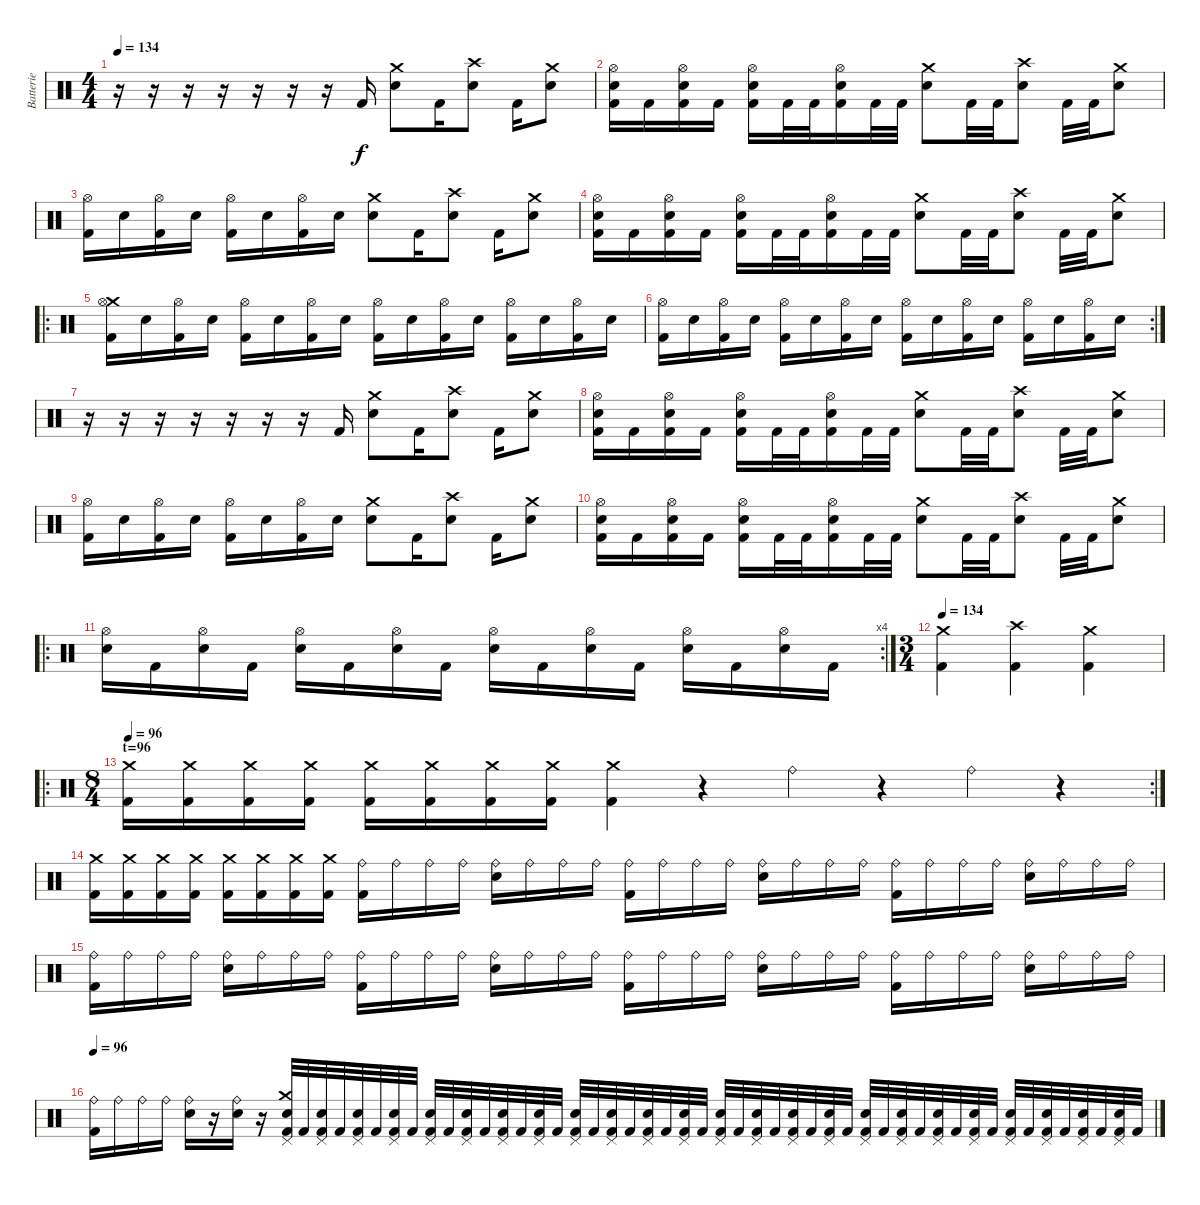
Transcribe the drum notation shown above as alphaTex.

\track ("Batterie" "Batterie") {instrument percussion}
\staff {score}
\articulation defaults
\ts (4 4)
\tempo 134
\clef neutral
\ks c
r.16{dy f} r.16 r.16 r.16 r.16 r.16 r.16 "Kick (hit) 2".16 ("Crash medium (hit)" "Electric Snare (hit)").8 "Kick (hit) 2".16 ("Crash high (hit)" "Electric Snare (hit)").8 "Kick (hit) 2".16 ("Crash medium (hit)" "Electric Snare (hit)").8 |
("Hi-Hat (open)" "Kick (hit) 2" "Electric Snare (hit)").16 "Kick (hit) 2".16 ("Hi-Hat (open)" "Kick (hit) 2" "Electric Snare (hit)").16 "Kick (hit) 2".16 ("Hi-Hat (open)" "Kick (hit) 2" "Electric Snare (hit)").16 "Kick (hit) 2".32 "Kick (hit) 2".32 ("Hi-Hat (open)" "Kick (hit) 2" "Electric Snare (hit)").16 "Kick (hit) 2".32 "Kick (hit) 2".32 ("Crash medium (hit)" "Electric Snare (hit)").8 "Kick (hit) 2".32 "Kick (hit) 2".32 ("Crash high (hit)" "Electric Snare (hit)").8 "Kick (hit) 2".32 "Kick (hit) 2".32 ("Crash medium (hit)" "Electric Snare (hit)").8 |
("Hi-Hat (open)" "Kick (hit) 2").16 "Electric Snare (hit)".16 ("Hi-Hat (open)" "Kick (hit) 2").16 "Electric Snare (hit)".16 ("Hi-Hat (open)" "Kick (hit) 2").16 "Electric Snare (hit)".16 ("Hi-Hat (open)" "Kick (hit) 2").16 "Electric Snare (hit)".16 ("Crash medium (hit)" "Electric Snare (hit)").8 "Kick (hit) 2".16 ("Crash high (hit)" "Electric Snare (hit)").8 "Kick (hit) 2".16 ("Crash medium (hit)" "Electric Snare (hit)").8 |
("Hi-Hat (open)" "Kick (hit) 2" "Electric Snare (hit)").16 "Kick (hit) 2".16 ("Hi-Hat (open)" "Kick (hit) 2" "Electric Snare (hit)").16 "Kick (hit) 2".16 ("Hi-Hat (open)" "Kick (hit) 2" "Electric Snare (hit)").16 "Kick (hit) 2".32 "Kick (hit) 2".32 ("Hi-Hat (open)" "Kick (hit) 2" "Electric Snare (hit)").16 "Kick (hit) 2".32 "Kick (hit) 2".32 ("Crash medium (hit)" "Electric Snare (hit)").8 "Kick (hit) 2".32 "Kick (hit) 2".32 ("Crash high (hit)" "Electric Snare (hit)").8 "Kick (hit) 2".32 "Kick (hit) 2".32 ("Crash medium (hit)" "Electric Snare (hit)").8 |
\ro
("Crash medium (hit)" "Hi-Hat (open)" "Kick (hit) 2").16 "Electric Snare (hit)".16 ("Hi-Hat (open)" "Kick (hit) 2").16 "Electric Snare (hit)".16 ("Hi-Hat (open)" "Kick (hit) 2").16 "Electric Snare (hit)".16 ("Hi-Hat (open)" "Kick (hit) 2").16 "Electric Snare (hit)".16 ("Hi-Hat (open)" "Kick (hit) 2").16 "Electric Snare (hit)".16 ("Hi-Hat (open)" "Kick (hit) 2").16 "Electric Snare (hit)".16 ("Hi-Hat (open)" "Kick (hit) 2").16 "Electric Snare (hit)".16 ("Hi-Hat (open)" "Kick (hit) 2").16 "Electric Snare (hit)".16 |
\rc 2
("Hi-Hat (open)" "Kick (hit) 2").16 "Electric Snare (hit)".16 ("Hi-Hat (open)" "Kick (hit) 2").16 "Electric Snare (hit)".16 ("Hi-Hat (open)" "Kick (hit) 2").16 "Electric Snare (hit)".16 ("Hi-Hat (open)" "Kick (hit) 2").16 "Electric Snare (hit)".16 ("Hi-Hat (open)" "Kick (hit) 2").16 "Electric Snare (hit)".16 ("Hi-Hat (open)" "Kick (hit) 2").16 "Electric Snare (hit)".16 ("Hi-Hat (open)" "Kick (hit) 2").16 "Electric Snare (hit)".16 ("Hi-Hat (open)" "Kick (hit) 2").16 "Electric Snare (hit)".16 |
r.16 r.16 r.16 r.16 r.16 r.16 r.16 "Kick (hit) 2".16 ("Crash medium (hit)" "Electric Snare (hit)").8 "Kick (hit) 2".16 ("Crash high (hit)" "Electric Snare (hit)").8 "Kick (hit) 2".16 ("Crash medium (hit)" "Electric Snare (hit)").8 |
("Hi-Hat (open)" "Kick (hit) 2" "Electric Snare (hit)").16 "Kick (hit) 2".16 ("Hi-Hat (open)" "Kick (hit) 2" "Electric Snare (hit)").16 "Kick (hit) 2".16 ("Hi-Hat (open)" "Kick (hit) 2" "Electric Snare (hit)").16 "Kick (hit) 2".32 "Kick (hit) 2".32 ("Hi-Hat (open)" "Kick (hit) 2" "Electric Snare (hit)").16 "Kick (hit) 2".32 "Kick (hit) 2".32 ("Crash medium (hit)" "Electric Snare (hit)").8 "Kick (hit) 2".32 "Kick (hit) 2".32 ("Crash high (hit)" "Electric Snare (hit)").8 "Kick (hit) 2".32 "Kick (hit) 2".32 ("Crash medium (hit)" "Electric Snare (hit)").8 |
("Hi-Hat (open)" "Kick (hit) 2").16 "Electric Snare (hit)".16 ("Hi-Hat (open)" "Kick (hit) 2").16 "Electric Snare (hit)".16 ("Hi-Hat (open)" "Kick (hit) 2").16 "Electric Snare (hit)".16 ("Hi-Hat (open)" "Kick (hit) 2").16 "Electric Snare (hit)".16 ("Crash medium (hit)" "Electric Snare (hit)").8 "Kick (hit) 2".16 ("Crash high (hit)" "Electric Snare (hit)").8 "Kick (hit) 2".16 ("Crash medium (hit)" "Electric Snare (hit)").8 |
("Hi-Hat (open)" "Kick (hit) 2" "Electric Snare (hit)").16 "Kick (hit) 2".16 ("Hi-Hat (open)" "Kick (hit) 2" "Electric Snare (hit)").16 "Kick (hit) 2".16 ("Hi-Hat (open)" "Kick (hit) 2" "Electric Snare (hit)").16 "Kick (hit) 2".32 "Kick (hit) 2".32 ("Hi-Hat (open)" "Kick (hit) 2" "Electric Snare (hit)").16 "Kick (hit) 2".32 "Kick (hit) 2".32 ("Crash medium (hit)" "Electric Snare (hit)").8 "Kick (hit) 2".32 "Kick (hit) 2".32 ("Crash high (hit)" "Electric Snare (hit)").8 "Kick (hit) 2".32 "Kick (hit) 2".32 ("Crash medium (hit)" "Electric Snare (hit)").8 |
\ro
\rc 4
("Hi-Hat (open)" "Electric Snare (hit)").16 "Kick (hit) 2".16 ("Hi-Hat (open)" "Electric Snare (hit)").16 "Kick (hit) 2".16 ("Hi-Hat (open)" "Electric Snare (hit)").16 "Kick (hit) 2".16 ("Hi-Hat (open)" "Electric Snare (hit)").16 "Kick (hit) 2".16 ("Hi-Hat (open)" "Electric Snare (hit)").16 "Kick (hit) 2".16 ("Hi-Hat (open)" "Electric Snare (hit)").16 "Kick (hit) 2".16 ("Hi-Hat (open)" "Electric Snare (hit)").16 "Kick (hit) 2".16 ("Hi-Hat (open)" "Electric Snare (hit)").16 "Kick (hit) 2".16 |
\ts (3 4)
\tempo 134
("Crash medium (hit)" "Kick (hit) 2").4 ("Crash high (hit)" "Kick (hit) 2").4 ("Crash medium (hit)" "Kick (hit) 2").4 |
\ro
\rc 2
\ts (8 4)
\section ("" "t=96")
\tempo 96
("Crash medium (hit)" "Kick (hit) 2").16 ("Crash medium (hit)" "Kick (hit) 2").16 ("Crash medium (hit)" "Kick (hit) 2").16 ("Crash medium (hit)" "Kick (hit) 2").16 ("Crash medium (hit)" "Kick (hit) 2").16 ("Crash medium (hit)" "Kick (hit) 2").16 ("Crash medium (hit)" "Kick (hit) 2").16 ("Crash medium (hit)" "Kick (hit) 2").16 ("Crash medium (hit)" "Kick (hit) 2").4 r.4 "Ride (bell)".4 r.4 "Ride (bell)".4 r.4 |
("Crash medium (hit)" "Kick (hit) 2").16 ("Crash medium (hit)" "Kick (hit) 2").16 ("Crash medium (hit)" "Kick (hit) 2").16 ("Crash medium (hit)" "Kick (hit) 2").16 ("Crash medium (hit)" "Kick (hit) 2").16 ("Crash medium (hit)" "Kick (hit) 2").16 ("Crash medium (hit)" "Kick (hit) 2").16 ("Crash medium (hit)" "Kick (hit) 2").16 ("Ride (bell)" "Kick (hit) 2").16 "Ride (bell)".16 "Ride (bell)".16 "Ride (bell)".16 ("Ride (bell)" "Electric Snare (hit)").16 "Ride (bell)".16 "Ride (bell)".16 "Ride (bell)".16 ("Ride (bell)" "Kick (hit) 2").16 "Ride (bell)".16 "Ride (bell)".16 "Ride (bell)".16 ("Ride (bell)" "Electric Snare (hit)").16 "Ride (bell)".16 "Ride (bell)".16 "Ride (bell)".16 ("Ride (bell)" "Kick (hit) 2").16 "Ride (bell)".16 "Ride (bell)".16 "Ride (bell)".16 ("Ride (bell)" "Electric Snare (hit)").16 "Ride (bell)".16 "Ride (bell)".16 "Ride (bell)".16 |
("Ride (bell)" "Kick (hit) 2").16 "Ride (bell)".16 "Ride (bell)".16 "Ride (bell)".16 ("Ride (bell)" "Electric Snare (hit)").16 "Ride (bell)".16 "Ride (bell)".16 "Ride (bell)".16 ("Ride (bell)" "Kick (hit) 2").16 "Ride (bell)".16 "Ride (bell)".16 "Ride (bell)".16 ("Ride (bell)" "Electric Snare (hit)").16 "Ride (bell)".16 "Ride (bell)".16 "Ride (bell)".16 ("Ride (bell)" "Kick (hit) 2").16 "Ride (bell)".16 "Ride (bell)".16 "Ride (bell)".16 ("Ride (bell)" "Electric Snare (hit)").16 "Ride (bell)".16 "Ride (bell)".16 "Ride (bell)".16 ("Ride (bell)" "Kick (hit) 2").16 "Ride (bell)".16 "Ride (bell)".16 "Ride (bell)".16 ("Ride (bell)" "Electric Snare (hit)").16 "Ride (bell)".16 "Ride (bell)".16 "Ride (bell)".16 |
\tempo 96
("Ride (bell)" "Kick (hit) 2").16 "Ride (bell)".16 "Ride (bell)".16 "Ride (bell)".16 ("Ride (bell)" "Electric Snare (hit)").16 r.16 ("Ride (bell)" "Electric Snare (hit)").16 r.16 ("Crash medium (hit)" "Pedal Hi-Hat (hit)" "Electric Snare (hit)" "Kick (hit) 2").32 "Kick (hit) 2".32 ("Pedal Hi-Hat (hit)" "Electric Snare (hit)" "Kick (hit) 2").32 "Kick (hit) 2".32 ("Pedal Hi-Hat (hit)" "Electric Snare (hit)" "Kick (hit) 2").32 "Kick (hit) 2".32 ("Pedal Hi-Hat (hit)" "Electric Snare (hit)" "Kick (hit) 2").32 "Kick (hit) 2".32 ("Pedal Hi-Hat (hit)" "Electric Snare (hit)" "Kick (hit) 2").32 "Kick (hit) 2".32 ("Pedal Hi-Hat (hit)" "Electric Snare (hit)" "Kick (hit) 2").32 "Kick (hit) 2".32 ("Pedal Hi-Hat (hit)" "Electric Snare (hit)" "Kick (hit) 2").32 "Kick (hit) 2".32 ("Pedal Hi-Hat (hit)" "Electric Snare (hit)" "Kick (hit) 2").32 "Kick (hit) 2".32 ("Pedal Hi-Hat (hit)" "Electric Snare (hit)" "Kick (hit) 2").32 "Kick (hit) 2".32 ("Pedal Hi-Hat (hit)" "Electric Snare (hit)" "Kick (hit) 2").32 "Kick (hit) 2".32 ("Pedal Hi-Hat (hit)" "Electric Snare (hit)" "Kick (hit) 2").32 "Kick (hit) 2".32 ("Pedal Hi-Hat (hit)" "Electric Snare (hit)" "Kick (hit) 2").32 "Kick (hit) 2".32 ("Pedal Hi-Hat (hit)" "Electric Snare (hit)" "Kick (hit) 2").32 "Kick (hit) 2".32 ("Pedal Hi-Hat (hit)" "Electric Snare (hit)" "Kick (hit) 2").32 "Kick (hit) 2".32 ("Pedal Hi-Hat (hit)" "Electric Snare (hit)" "Kick (hit) 2").32 "Kick (hit) 2".32 ("Pedal Hi-Hat (hit)" "Electric Snare (hit)" "Kick (hit) 2").32 "Kick (hit) 2".32 ("Pedal Hi-Hat (hit)" "Electric Snare (hit)" "Kick (hit) 2").32 "Kick (hit) 2".32 ("Pedal Hi-Hat (hit)" "Electric Snare (hit)" "Kick (hit) 2").32 "Kick (hit) 2".32 ("Pedal Hi-Hat (hit)" "Electric Snare (hit)" "Kick (hit) 2").32 "Kick (hit) 2".32 ("Pedal Hi-Hat (hit)" "Electric Snare (hit)" "Kick (hit) 2").32 "Kick (hit) 2".32 ("Pedal Hi-Hat (hit)" "Electric Snare (hit)" "Kick (hit) 2").32 "Kick (hit) 2".32 ("Pedal Hi-Hat (hit)" "Electric Snare (hit)" "Kick (hit) 2").32 "Kick (hit) 2".32 ("Pedal Hi-Hat (hit)" "Electric Snare (hit)" "Kick (hit) 2").32 "Kick (hit) 2".32 ("Pedal Hi-Hat (hit)" "Electric Snare (hit)" "Kick (hit) 2").32 "Kick (hit) 2".32
